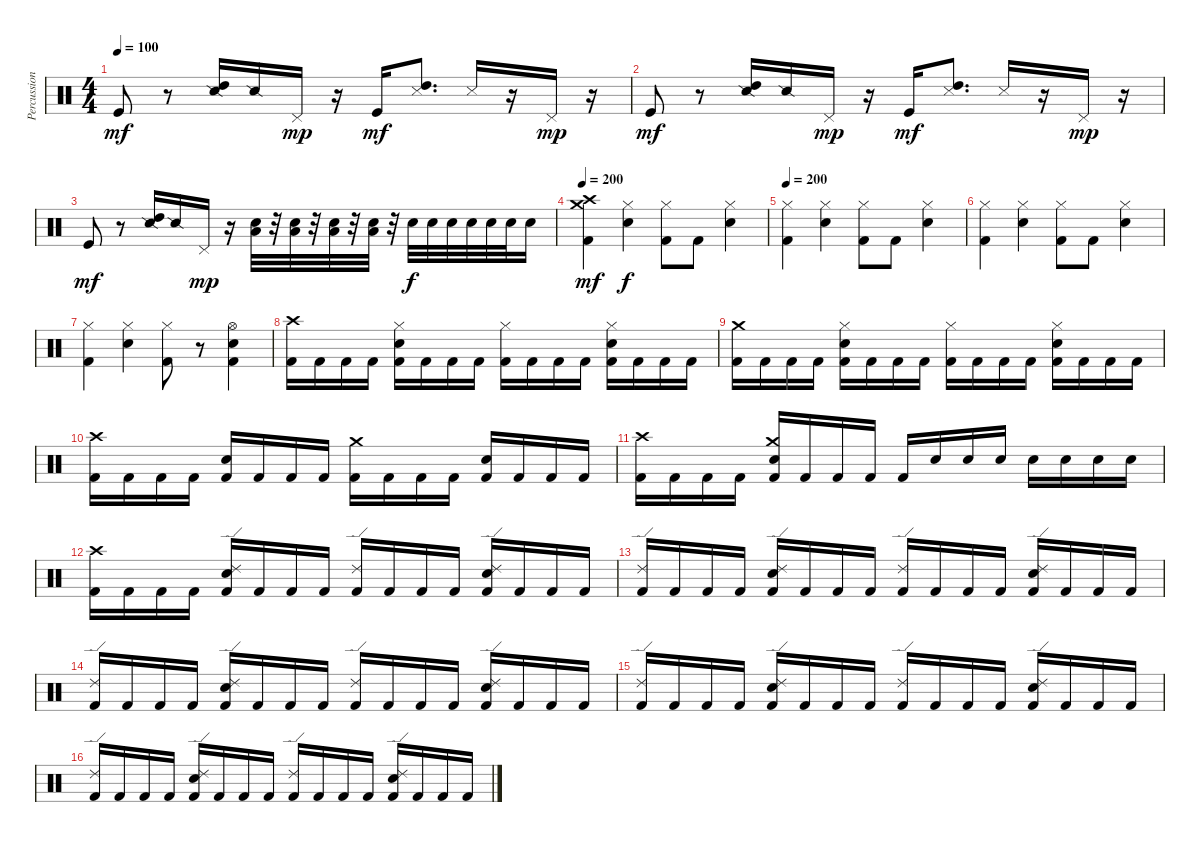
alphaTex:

\track ("Percussions 1" "Percussion") {instrument percussion}
\staff {score}
\articulation defaults
\ts (4 4)
\tempo 100
\clef neutral
\ks c "Kick (hit)".8{dy mf}
r.8 ("High Tom (hit)" "Snare (side stick) 2").16 "Snare (side stick) 2".16 "Pedal Hi-Hat (hit)".16{dy mp} r.16 "Kick (hit)".16{dy mf} ("High Tom (hit)" "Snare (side stick) 3").8{d} "Snare (side stick) 3".16 r.16 "Pedal Hi-Hat (hit)".16{dy mp} r.16 |
"Kick (hit)".8{dy mf} r.8 ("High Tom (hit)" "Snare (side stick) 2").16 "Snare (side stick) 2".16 "Pedal Hi-Hat (hit)".16{dy mp} r.16 "Kick (hit)".16{dy mf} ("High Tom (hit)" "Snare (side stick) 3").8{d} "Snare (side stick) 3".16 r.16 "Pedal Hi-Hat (hit)".16{dy mp} r.16 |
"Kick (hit)".8{dy mf} r.8 ("High Tom (hit)" "Snare (side stick) 2").16 "Snare (side stick) 2".16 "Pedal Hi-Hat (hit)".16{dy mp} r.16 ("Snare (hit) 2" "Low Tom (hit)").32 r.32 ("Snare (hit) 2" "Low Tom (hit)").32 r.32 ("Snare (hit) 2" "Low Tom (hit)").32 r.32 ("Snare (hit) 2" "Low Tom (hit)").32 r.32 "Snare (hit) 2".32{dy f} "Snare (hit) 2".32 "Snare (hit) 2".32 "Snare (hit) 2".32 "Snare (hit) 2".32 "Snare (hit) 2".32 "Snare (hit) 2".16 |
\tempo 200
("Crash high (hit)" "Crash medium (hit)" "Kick (hit) 2").4{dy mf} ("Hi-Hat (closed)" "Snare (hit) 2").4{dy f} ("Hi-Hat (closed)" "Kick (hit) 2").8 "Kick (hit) 2".8 ("Hi-Hat (closed)" "Snare (hit) 2").4 |
\tempo 200
("Hi-Hat (closed)" "Kick (hit) 2").4 ("Hi-Hat (closed)" "Snare (hit) 2").4 ("Hi-Hat (closed)" "Kick (hit) 2").8 "Kick (hit) 2".8 ("Hi-Hat (closed)" "Snare (hit) 2").4 |
("Hi-Hat (closed)" "Kick (hit) 2").4 ("Hi-Hat (closed)" "Snare (hit) 2").4 ("Hi-Hat (closed)" "Kick (hit) 2").8 "Kick (hit) 2".8 ("Hi-Hat (closed)" "Snare (hit) 2").4 |
("Hi-Hat (closed)" "Kick (hit) 2").4 ("Hi-Hat (closed)" "Snare (hit) 2").4 ("Hi-Hat (closed)" "Kick (hit) 2").8 r.8 ("Hi-Hat (open)" "Snare (hit) 2" "Kick (hit) 2").4 |
("Crash high (hit)" "Kick (hit) 2").16 "Kick (hit) 2".16 "Kick (hit) 2".16 "Kick (hit) 2".16 ("Hi-Hat (closed)" "Snare (hit) 2" "Kick (hit) 2").16 "Kick (hit) 2".16 "Kick (hit) 2".16 "Kick (hit) 2".16 ("Hi-Hat (closed)" "Kick (hit) 2").16 "Kick (hit) 2".16 "Kick (hit) 2".16 "Kick (hit) 2".16 ("Hi-Hat (closed)" "Snare (hit) 2" "Kick (hit) 2").16 "Kick (hit) 2".16 "Kick (hit) 2".16 "Kick (hit) 2".16 |
("Crash medium (hit)" "Kick (hit) 2").16 "Kick (hit) 2".16 "Kick (hit) 2".16 "Kick (hit) 2".16 ("Hi-Hat (closed)" "Snare (hit) 2" "Kick (hit) 2").16 "Kick (hit) 2".16 "Kick (hit) 2".16 "Kick (hit) 2".16 ("Hi-Hat (closed)" "Kick (hit) 2").16 "Kick (hit) 2".16 "Kick (hit) 2".16 "Kick (hit) 2".16 ("Hi-Hat (closed)" "Snare (hit) 2" "Kick (hit) 2").16 "Kick (hit) 2".16 "Kick (hit) 2".16 "Kick (hit) 2".16 |
("Crash high (hit)" "Kick (hit) 2").16 "Kick (hit) 2".16 "Kick (hit) 2".16 "Kick (hit) 2".16 ("Snare (hit) 2" "Kick (hit) 2").16 "Kick (hit) 2".16 "Kick (hit) 2".16 "Kick (hit) 2".16 ("Crash medium (hit)" "Kick (hit) 2").16 "Kick (hit) 2".16 "Kick (hit) 2".16 "Kick (hit) 2".16 ("Snare (hit) 2" "Kick (hit) 2").16 "Kick (hit) 2".16 "Kick (hit) 2".16 "Kick (hit) 2".16 |
("Crash high (hit)" "Kick (hit) 2").16 "Kick (hit) 2".16 "Kick (hit) 2".16 "Kick (hit) 2".16 ("Crash medium (hit)" "Snare (hit) 2" "Kick (hit) 2").16 "Kick (hit) 2".16 "Kick (hit) 2".16 "Kick (hit) 2".16 "Kick (hit) 2".16 "Snare (hit) 2".16 "Snare (hit) 2".16 "Snare (hit) 2".16 "Snare (hit) 2".16 "Snare (hit) 2".16 "Snare (hit) 2".16 "Snare (hit) 2".16 |
("Crash high (hit)" "Kick (hit) 2").16 "Kick (hit) 2".16 "Kick (hit) 2".16 "Kick (hit) 2".16 ("Ride (edge) 2" "Snare (hit) 2" "Kick (hit) 2").16 "Kick (hit) 2".16 "Kick (hit) 2".16 "Kick (hit) 2".16 ("Ride (edge) 2" "Kick (hit) 2").16 "Kick (hit) 2".16 "Kick (hit) 2".16 "Kick (hit) 2".16 ("Ride (edge) 2" "Snare (hit) 2" "Kick (hit) 2").16 "Kick (hit) 2".16 "Kick (hit) 2".16 "Kick (hit) 2".16 |
("Ride (edge) 2" "Kick (hit) 2").16 "Kick (hit) 2".16 "Kick (hit) 2".16 "Kick (hit) 2".16 ("Ride (edge) 2" "Snare (hit) 2" "Kick (hit) 2").16 "Kick (hit) 2".16 "Kick (hit) 2".16 "Kick (hit) 2".16 ("Ride (edge) 2" "Kick (hit) 2").16 "Kick (hit) 2".16 "Kick (hit) 2".16 "Kick (hit) 2".16 ("Ride (edge) 2" "Snare (hit) 2" "Kick (hit) 2").16 "Kick (hit) 2".16 "Kick (hit) 2".16 "Kick (hit) 2".16 |
("Ride (edge) 2" "Kick (hit) 2").16 "Kick (hit) 2".16 "Kick (hit) 2".16 "Kick (hit) 2".16 ("Ride (edge) 2" "Snare (hit) 2" "Kick (hit) 2").16 "Kick (hit) 2".16 "Kick (hit) 2".16 "Kick (hit) 2".16 ("Ride (edge) 2" "Kick (hit) 2").16 "Kick (hit) 2".16 "Kick (hit) 2".16 "Kick (hit) 2".16 ("Ride (edge) 2" "Snare (hit) 2" "Kick (hit) 2").16 "Kick (hit) 2".16 "Kick (hit) 2".16 "Kick (hit) 2".16 |
("Ride (edge) 2" "Kick (hit) 2").16 "Kick (hit) 2".16 "Kick (hit) 2".16 "Kick (hit) 2".16 ("Ride (edge) 2" "Snare (hit) 2" "Kick (hit) 2").16 "Kick (hit) 2".16 "Kick (hit) 2".16 "Kick (hit) 2".16 ("Ride (edge) 2" "Kick (hit) 2").16 "Kick (hit) 2".16 "Kick (hit) 2".16 "Kick (hit) 2".16 ("Ride (edge) 2" "Snare (hit) 2" "Kick (hit) 2").16 "Kick (hit) 2".16 "Kick (hit) 2".16 "Kick (hit) 2".16 |
("Ride (edge) 2" "Kick (hit) 2").16 "Kick (hit) 2".16 "Kick (hit) 2".16 "Kick (hit) 2".16 ("Ride (edge) 2" "Snare (hit) 2" "Kick (hit) 2").16 "Kick (hit) 2".16 "Kick (hit) 2".16 "Kick (hit) 2".16 ("Ride (edge) 2" "Kick (hit) 2").16 "Kick (hit) 2".16 "Kick (hit) 2".16 "Kick (hit) 2".16 ("Ride (edge) 2" "Snare (hit) 2" "Kick (hit) 2").16 "Kick (hit) 2".16 "Kick (hit) 2".16 "Kick (hit) 2".16
